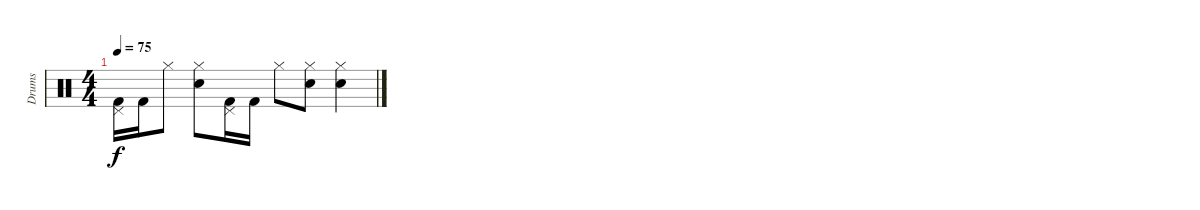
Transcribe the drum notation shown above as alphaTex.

\track ("Drums" "Drums") {instrument percussion}
\staff {score}
\articulation defaults
\ts (4 4)
\tempo 75
\clef neutral
\ks c
("Pedal Hi-Hat (hit)" "Kick (hit) 2").16{dy f} "Kick (hit) 2".16 "Hi-Hat (closed)".8 ("Electric Snare (hit)" "Hi-Hat (closed)").8 ("Pedal Hi-Hat (hit)" "Kick (hit) 2").16 "Kick (hit) 2".16 "Hi-Hat (closed)".8 ("Electric Snare (hit)" "Hi-Hat (closed)").8 ("Electric Snare (hit)" "Hi-Hat (closed)").4
